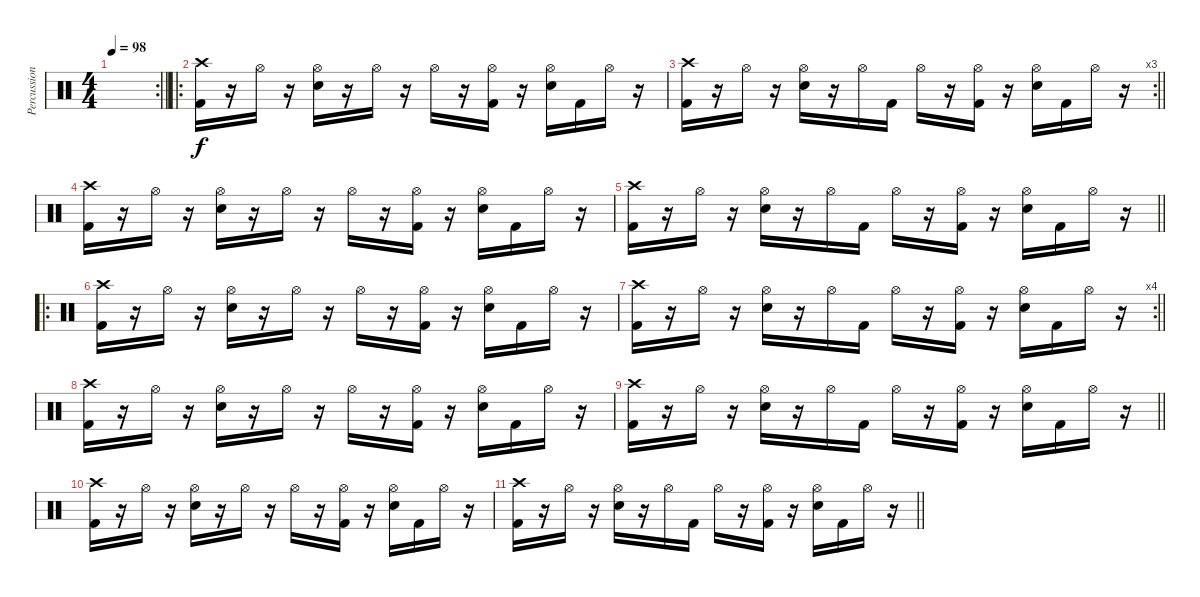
\track ("Percussion" "Percussion") {instrument percussion}
\staff {score}
\articulation defaults
\rc 2
\ts (4 4)
\tempo 98
\clef neutral
\barLineRight lightlight
\ks c
|
\ro
("Crash high (hit)" "Kick (hit) 2").16 r.16 "Hi-Hat (open)".16 r.16 ("Hi-Hat (open)" "Snare (hit) 2").16 r.16 "Hi-Hat (open)".16 r.16 "Hi-Hat (open)".16 r.16 ("Hi-Hat (open)" "Kick (hit) 2").16 r.16 ("Hi-Hat (open)" "Snare (hit) 2").16 "Kick (hit) 2".16 "Hi-Hat (open)".16 r.16 |
\rc 3
\barLineRight lightlight
("Crash high (hit)" "Kick (hit) 2").16 r.16 "Hi-Hat (open)".16 r.16 ("Hi-Hat (open)" "Snare (hit) 2").16 r.16 "Hi-Hat (open)".16 "Kick (hit) 2".16 "Hi-Hat (open)".16 r.16 ("Hi-Hat (open)" "Kick (hit) 2").16 r.16 ("Hi-Hat (open)" "Snare (hit) 2").16 "Kick (hit) 2".16 "Hi-Hat (open)".16 r.16 |
("Crash high (hit)" "Kick (hit) 2").16 r.16 "Hi-Hat (open)".16 r.16 ("Hi-Hat (open)" "Snare (hit) 2").16 r.16 "Hi-Hat (open)".16 r.16 "Hi-Hat (open)".16 r.16 ("Hi-Hat (open)" "Kick (hit) 2").16 r.16 ("Hi-Hat (open)" "Snare (hit) 2").16 "Kick (hit) 2".16 "Hi-Hat (open)".16 r.16 |
\barLineRight lightlight
("Crash high (hit)" "Kick (hit) 2").16 r.16 "Hi-Hat (open)".16 r.16 ("Hi-Hat (open)" "Snare (hit) 2").16 r.16 "Hi-Hat (open)".16 "Kick (hit) 2".16 "Hi-Hat (open)".16 r.16 ("Hi-Hat (open)" "Kick (hit) 2").16 r.16 ("Hi-Hat (open)" "Snare (hit) 2").16 "Kick (hit) 2".16 "Hi-Hat (open)".16 r.16 |
\ro
("Crash high (hit)" "Kick (hit) 2").16 r.16 "Hi-Hat (open)".16 r.16 ("Hi-Hat (open)" "Snare (hit) 2").16 r.16 "Hi-Hat (open)".16 r.16 "Hi-Hat (open)".16 r.16 ("Hi-Hat (open)" "Kick (hit) 2").16 r.16 ("Hi-Hat (open)" "Snare (hit) 2").16 "Kick (hit) 2".16 "Hi-Hat (open)".16 r.16 |
\rc 4
\barLineRight lightlight
("Crash high (hit)" "Kick (hit) 2").16 r.16 "Hi-Hat (open)".16 r.16 ("Hi-Hat (open)" "Snare (hit) 2").16 r.16 "Hi-Hat (open)".16 "Kick (hit) 2".16 "Hi-Hat (open)".16 r.16 ("Hi-Hat (open)" "Kick (hit) 2").16 r.16 ("Hi-Hat (open)" "Snare (hit) 2").16 "Kick (hit) 2".16 "Hi-Hat (open)".16 r.16 |
("Crash high (hit)" "Kick (hit) 2").16 r.16 "Hi-Hat (open)".16 r.16 ("Hi-Hat (open)" "Snare (hit) 2").16 r.16 "Hi-Hat (open)".16 r.16 "Hi-Hat (open)".16 r.16 ("Hi-Hat (open)" "Kick (hit) 2").16 r.16 ("Hi-Hat (open)" "Snare (hit) 2").16 "Kick (hit) 2".16 "Hi-Hat (open)".16 r.16 |
\barLineRight lightlight
("Crash high (hit)" "Kick (hit) 2").16 r.16 "Hi-Hat (open)".16 r.16 ("Hi-Hat (open)" "Snare (hit) 2").16 r.16 "Hi-Hat (open)".16 "Kick (hit) 2".16 "Hi-Hat (open)".16 r.16 ("Hi-Hat (open)" "Kick (hit) 2").16 r.16 ("Hi-Hat (open)" "Snare (hit) 2").16 "Kick (hit) 2".16 "Hi-Hat (open)".16 r.16 |
("Crash high (hit)" "Kick (hit) 2").16 r.16 "Hi-Hat (open)".16 r.16 ("Hi-Hat (open)" "Snare (hit) 2").16 r.16 "Hi-Hat (open)".16 r.16 "Hi-Hat (open)".16 r.16 ("Hi-Hat (open)" "Kick (hit) 2").16 r.16 ("Hi-Hat (open)" "Snare (hit) 2").16 "Kick (hit) 2".16 "Hi-Hat (open)".16 r.16 |
\barLineRight lightlight
("Crash high (hit)" "Kick (hit) 2").16 r.16 "Hi-Hat (open)".16 r.16 ("Hi-Hat (open)" "Snare (hit) 2").16 r.16 "Hi-Hat (open)".16 "Kick (hit) 2".16 "Hi-Hat (open)".16 r.16 ("Hi-Hat (open)" "Kick (hit) 2").16 r.16 ("Hi-Hat (open)" "Snare (hit) 2").16 "Kick (hit) 2".16 "Hi-Hat (open)".16 r.16
